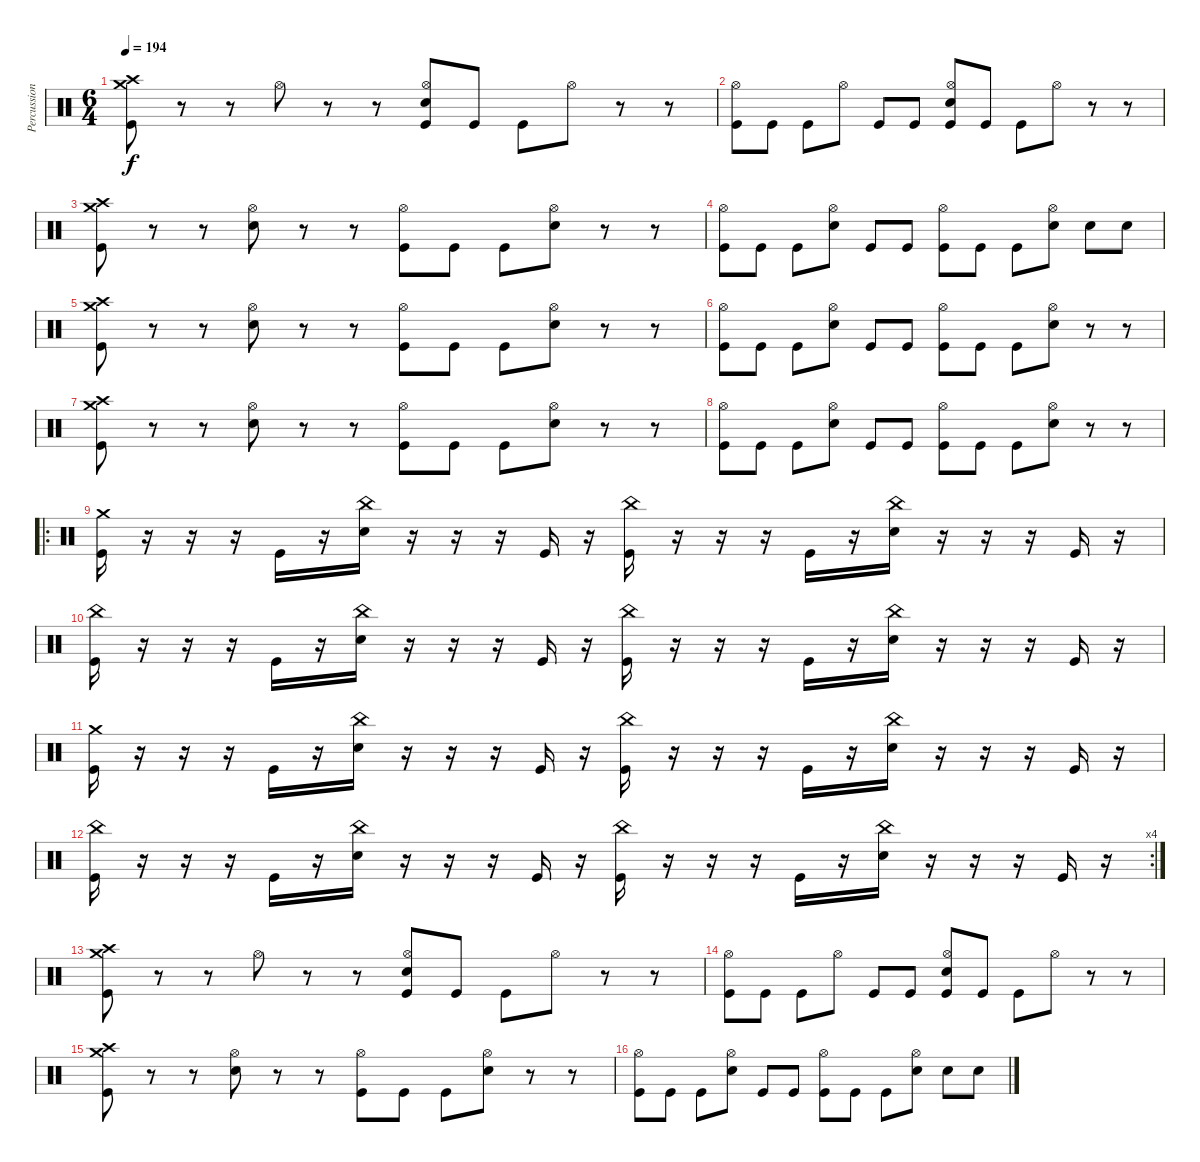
\track ("Percussion" "Percussion") {instrument percussion}
\staff {score}
\articulation defaults
\ts (6 4)
\tempo 194
\clef neutral
\ks c
("Crash medium (hit)" "Crash high (hit)" "Kick (hit)").8{dy f} r.8 r.8 "Hi-Hat (open)".8 r.8 r.8 ("Hi-Hat (open)" "Electric Snare (hit)" "Kick (hit)").8 "Kick (hit)".8 "Kick (hit)".8 "Hi-Hat (open)".8 r.8 r.8 |
("Hi-Hat (open)" "Kick (hit)").8 "Kick (hit)".8 "Kick (hit)".8 "Hi-Hat (open)".8 "Kick (hit)".8 "Kick (hit)".8 ("Hi-Hat (open)" "Electric Snare (hit)" "Kick (hit)").8 "Kick (hit)".8 "Kick (hit)".8 "Hi-Hat (open)".8 r.8 r.8 |
("Crash medium (hit)" "Crash high (hit)" "Kick (hit)").8 r.8 r.8 ("Hi-Hat (open)" "Electric Snare (hit)").8 r.8 r.8 ("Hi-Hat (open)" "Kick (hit)").8 "Kick (hit)".8 "Kick (hit)".8 ("Hi-Hat (open)" "Electric Snare (hit)").8 r.8 r.8 |
("Hi-Hat (open)" "Kick (hit)").8 "Kick (hit)".8 "Kick (hit)".8 ("Hi-Hat (open)" "Electric Snare (hit)").8 "Kick (hit)".8 "Kick (hit)".8 ("Hi-Hat (open)" "Kick (hit)").8 "Kick (hit)".8 "Kick (hit)".8 ("Hi-Hat (open)" "Electric Snare (hit)").8 "Electric Snare (hit)".8 "Electric Snare (hit)".8 |
("Crash medium (hit)" "Crash high (hit)" "Kick (hit)").8 r.8 r.8 ("Hi-Hat (open)" "Electric Snare (hit)").8 r.8 r.8 ("Hi-Hat (open)" "Kick (hit)").8 "Kick (hit)".8 "Kick (hit)".8 ("Hi-Hat (open)" "Electric Snare (hit)").8 r.8 r.8 |
("Hi-Hat (open)" "Kick (hit)").8 "Kick (hit)".8 "Kick (hit)".8 ("Hi-Hat (open)" "Electric Snare (hit)").8 "Kick (hit)".8 "Kick (hit)".8 ("Hi-Hat (open)" "Kick (hit)").8 "Kick (hit)".8 "Kick (hit)".8 ("Hi-Hat (open)" "Electric Snare (hit)").8 r.8 r.8 |
("Crash medium (hit)" "Crash high (hit)" "Kick (hit)").8 r.8 r.8 ("Hi-Hat (open)" "Electric Snare (hit)").8 r.8 r.8 ("Hi-Hat (open)" "Kick (hit)").8 "Kick (hit)".8 "Kick (hit)".8 ("Hi-Hat (open)" "Electric Snare (hit)").8 r.8 r.8 |
("Hi-Hat (open)" "Kick (hit)").8 "Kick (hit)".8 "Kick (hit)".8 ("Hi-Hat (open)" "Electric Snare (hit)").8 "Kick (hit)".8 "Kick (hit)".8 ("Hi-Hat (open)" "Kick (hit)").8 "Kick (hit)".8 "Kick (hit)".8 ("Hi-Hat (open)" "Electric Snare (hit)").8 r.8 r.8 |
\ro
("Crash medium (hit)" "Kick (hit)").16 r.16 r.16 r.16 "Kick (hit)".16 r.16 ("China (hit)" "Electric Snare (hit)").16 r.16 r.16 r.16 "Kick (hit)".16 r.16 ("China (hit)" "Kick (hit)").16 r.16 r.16 r.16 "Kick (hit)".16 r.16 ("China (hit)" "Electric Snare (hit)").16 r.16 r.16 r.16 "Kick (hit)".16 r.16 |
("China (hit)" "Kick (hit)").16 r.16 r.16 r.16 "Kick (hit)".16 r.16 ("China (hit)" "Electric Snare (hit)").16 r.16 r.16 r.16 "Kick (hit)".16 r.16 ("China (hit)" "Kick (hit)").16 r.16 r.16 r.16 "Kick (hit)".16 r.16 ("China (hit)" "Electric Snare (hit)").16 r.16 r.16 r.16 "Kick (hit)".16 r.16 |
("Crash medium (hit)" "Kick (hit)").16 r.16 r.16 r.16 "Kick (hit)".16 r.16 ("China (hit)" "Electric Snare (hit)").16 r.16 r.16 r.16 "Kick (hit)".16 r.16 ("China (hit)" "Kick (hit)").16 r.16 r.16 r.16 "Kick (hit)".16 r.16 ("China (hit)" "Electric Snare (hit)").16 r.16 r.16 r.16 "Kick (hit)".16 r.16 |
\rc 4
("China (hit)" "Kick (hit)").16 r.16 r.16 r.16 "Kick (hit)".16 r.16 ("China (hit)" "Electric Snare (hit)").16 r.16 r.16 r.16 "Kick (hit)".16 r.16 ("China (hit)" "Kick (hit)").16 r.16 r.16 r.16 "Kick (hit)".16 r.16 ("China (hit)" "Electric Snare (hit)").16 r.16 r.16 r.16 "Kick (hit)".16 r.16 |
("Crash medium (hit)" "Crash high (hit)" "Kick (hit)").8 r.8 r.8 "Hi-Hat (open)".8 r.8 r.8 ("Hi-Hat (open)" "Electric Snare (hit)" "Kick (hit)").8 "Kick (hit)".8 "Kick (hit)".8 "Hi-Hat (open)".8 r.8 r.8 |
("Hi-Hat (open)" "Kick (hit)").8 "Kick (hit)".8 "Kick (hit)".8 "Hi-Hat (open)".8 "Kick (hit)".8 "Kick (hit)".8 ("Hi-Hat (open)" "Electric Snare (hit)" "Kick (hit)").8 "Kick (hit)".8 "Kick (hit)".8 "Hi-Hat (open)".8 r.8 r.8 |
("Crash medium (hit)" "Crash high (hit)" "Kick (hit)").8 r.8 r.8 ("Hi-Hat (open)" "Electric Snare (hit)").8 r.8 r.8 ("Hi-Hat (open)" "Kick (hit)").8 "Kick (hit)".8 "Kick (hit)".8 ("Hi-Hat (open)" "Electric Snare (hit)").8 r.8 r.8 |
("Hi-Hat (open)" "Kick (hit)").8 "Kick (hit)".8 "Kick (hit)".8 ("Hi-Hat (open)" "Electric Snare (hit)").8 "Kick (hit)".8 "Kick (hit)".8 ("Hi-Hat (open)" "Kick (hit)").8 "Kick (hit)".8 "Kick (hit)".8 ("Hi-Hat (open)" "Electric Snare (hit)").8 "Electric Snare (hit)".8 "Electric Snare (hit)".8
